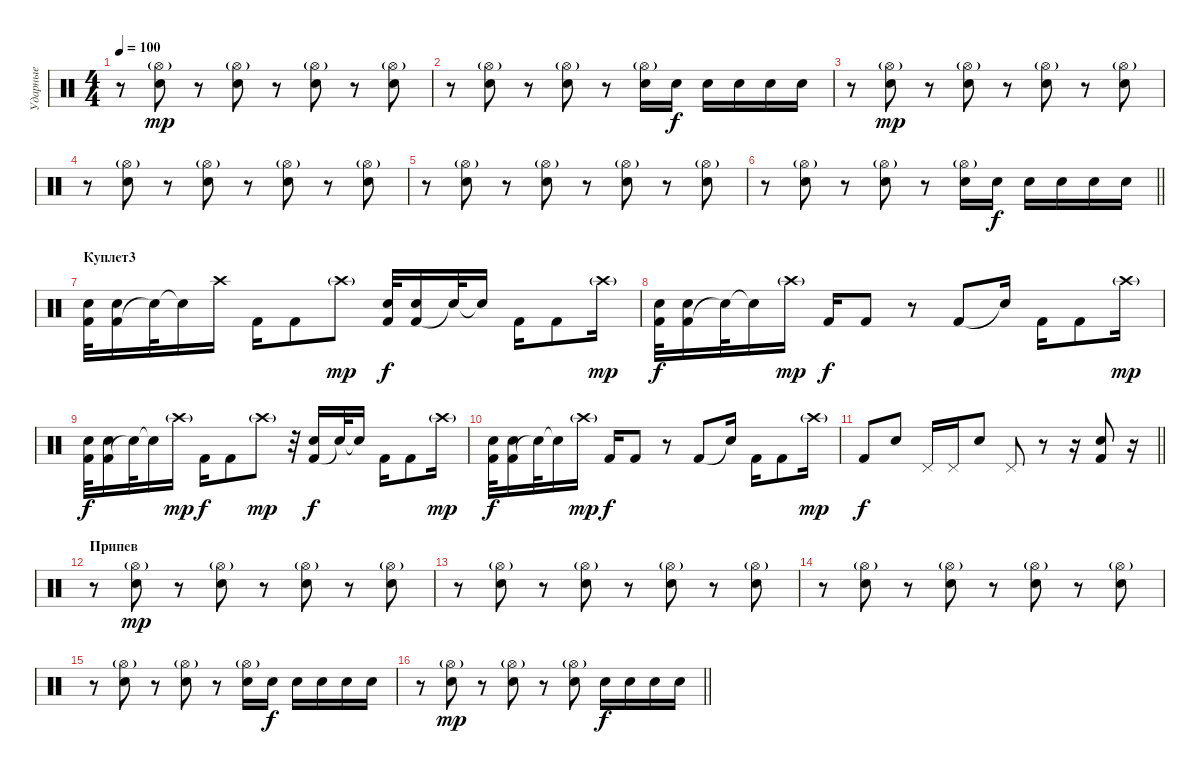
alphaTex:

\track ("Ударные" "Ударные") {instrument percussion}
\staff {score}
\articulation defaults
\ts (4 4)
\tempo 100
\clef neutral
\ks c
r.8{dy mp} ("Electric Snare (hit)" "Hi-Hat (open)"{g}).8 r.8 ("Electric Snare (hit)" "Hi-Hat (open)"{g}).8 r.8 ("Electric Snare (hit)" "Hi-Hat (open)"{g}).8 r.8 ("Electric Snare (hit)" "Hi-Hat (open)"{g}).8 |
r.8 ("Electric Snare (hit)" "Hi-Hat (open)"{g}).8 r.8 ("Electric Snare (hit)" "Hi-Hat (open)"{g}).8 r.8 ("Electric Snare (hit)" "Hi-Hat (open)"{g}).16 "Electric Snare (hit)".16{dy f} "Electric Snare (hit)".16 "Electric Snare (hit)".16 "Electric Snare (hit)".16 "Electric Snare (hit)".16 |
r.8 ("Electric Snare (hit)" "Hi-Hat (open)"{g}).8{dy mp} r.8 ("Electric Snare (hit)" "Hi-Hat (open)"{g}).8 r.8 ("Electric Snare (hit)" "Hi-Hat (open)"{g}).8 r.8 ("Electric Snare (hit)" "Hi-Hat (open)"{g}).8 |
r.8 ("Electric Snare (hit)" "Hi-Hat (open)"{g}).8 r.8 ("Electric Snare (hit)" "Hi-Hat (open)"{g}).8 r.8 ("Electric Snare (hit)" "Hi-Hat (open)"{g}).8 r.8 ("Electric Snare (hit)" "Hi-Hat (open)"{g}).8 |
r.8 ("Electric Snare (hit)" "Hi-Hat (open)"{g}).8 r.8 ("Electric Snare (hit)" "Hi-Hat (open)"{g}).8 r.8 ("Electric Snare (hit)" "Hi-Hat (open)"{g}).8 r.8 ("Electric Snare (hit)" "Hi-Hat (open)"{g}).8 |
\barLineRight lightlight
r.8 ("Electric Snare (hit)" "Hi-Hat (open)"{g}).8 r.8 ("Electric Snare (hit)" "Hi-Hat (open)"{g}).8 r.8 ("Electric Snare (hit)" "Hi-Hat (open)"{g}).16 "Electric Snare (hit)".16{dy f} "Electric Snare (hit)".16 "Electric Snare (hit)".16 "Electric Snare (hit)".16 "Electric Snare (hit)".16 |
\section ("" "Куплет3")
("Electric Snare (hit)" "Kick (hit) 2").32 ("Kick (hit) 2" "Electric Snare (hit)").16 "Snare (hit)"{t}.32 "Snare (hit)"{t}.16 "Crash high (hit)".16 "Kick (hit) 2".16 "Kick (hit) 2".8 "Crash high (hit)"{g}.8{dy mp} ("Electric Snare (hit)" "Kick (hit) 2").32{dy f} ("Kick (hit) 2" "Electric Snare (hit)").16 "Snare (hit)"{t}.32 "Snare (hit)"{t}.16 "Kick (hit) 2".16 "Kick (hit) 2".8 "Crash high (hit)"{g}.16{dy mp} |
("Electric Snare (hit)" "Kick (hit) 2").32{dy f} ("Kick (hit) 2" "Electric Snare (hit)").16 "Snare (hit)"{t}.32 "Snare (hit)"{t}.16 "Crash high (hit)"{g}.16{dy mp} "Kick (hit) 2".16{dy f} "Kick (hit) 2".8 r.8 "Kick (hit) 2".8 "Snare (hit)"{t}.16 "Kick (hit) 2".16 "Kick (hit) 2".8 "Crash high (hit)"{g}.16{dy mp} |
("Electric Snare (hit)" "Kick (hit) 2").32{dy f} ("Kick (hit) 2" "Electric Snare (hit)").16 "Snare (hit)"{t}.32 "Snare (hit)"{t}.16 "Crash high (hit)"{g}.16{dy mp} "Kick (hit) 2".16{dy f} "Kick (hit) 2".8 "Crash high (hit)"{g}.8{dy mp} r.32 ("Kick (hit) 2" "Electric Snare (hit)").16{dy f} "Snare (hit)"{t}.32 "Snare (hit)"{t}.16 "Kick (hit) 2".16 "Kick (hit) 2".8 "Crash high (hit)"{g}.16{dy mp} |
("Electric Snare (hit)" "Kick (hit) 2").32{dy f} ("Kick (hit) 2" "Electric Snare (hit)").16 "Snare (hit)"{t}.32 "Snare (hit)"{t}.16 "Crash high (hit)"{g}.16{dy mp} "Kick (hit) 2".16{dy f} "Kick (hit) 2".8 r.8 "Kick (hit) 2".8 "Snare (hit)"{t}.16 "Kick (hit) 2".16 "Kick (hit) 2".8 "Crash high (hit)"{g}.16{dy mp} |
\barLineRight lightlight "Kick (hit) 2".8{dy f} "Electric Snare (hit)".8 "Pedal Hi-Hat (hit)".16 "Pedal Hi-Hat (hit)".16 "Electric Snare (hit)".8 "Pedal Hi-Hat (hit)".8
r.8 r.16 ("Kick (hit) 2" "Snare (hit) 2").8 r.16 |
\section ("" "Припев")
r.8 ("Electric Snare (hit)" "Hi-Hat (open)"{g}).8{dy mp} r.8 ("Electric Snare (hit)" "Hi-Hat (open)"{g}).8 r.8 ("Electric Snare (hit)" "Hi-Hat (open)"{g}).8 r.8 ("Electric Snare (hit)" "Hi-Hat (open)"{g}).8 |
r.8 ("Electric Snare (hit)" "Hi-Hat (open)"{g}).8 r.8 ("Electric Snare (hit)" "Hi-Hat (open)"{g}).8 r.8 ("Electric Snare (hit)" "Hi-Hat (open)"{g}).8 r.8 ("Electric Snare (hit)" "Hi-Hat (open)"{g}).8 |
r.8 ("Electric Snare (hit)" "Hi-Hat (open)"{g}).8 r.8 ("Electric Snare (hit)" "Hi-Hat (open)"{g}).8 r.8 ("Electric Snare (hit)" "Hi-Hat (open)"{g}).8 r.8 ("Electric Snare (hit)" "Hi-Hat (open)"{g}).8 |
r.8 ("Electric Snare (hit)" "Hi-Hat (open)"{g}).8 r.8 ("Electric Snare (hit)" "Hi-Hat (open)"{g}).8 r.8 ("Electric Snare (hit)" "Hi-Hat (open)"{g}).16 "Electric Snare (hit)".16{dy f} "Electric Snare (hit)".16 "Electric Snare (hit)".16 "Electric Snare (hit)".16 "Electric Snare (hit)".16 |
\barLineRight lightlight
r.8 ("Electric Snare (hit)" "Hi-Hat (open)"{g}).8{dy mp} r.8 ("Electric Snare (hit)" "Hi-Hat (open)"{g}).8 r.8 ("Electric Snare (hit)" "Hi-Hat (open)"{g}).8 "Electric Snare (hit)".16{dy f} "Electric Snare (hit)".16 "Electric Snare (hit)".16 "Electric Snare (hit)".16
